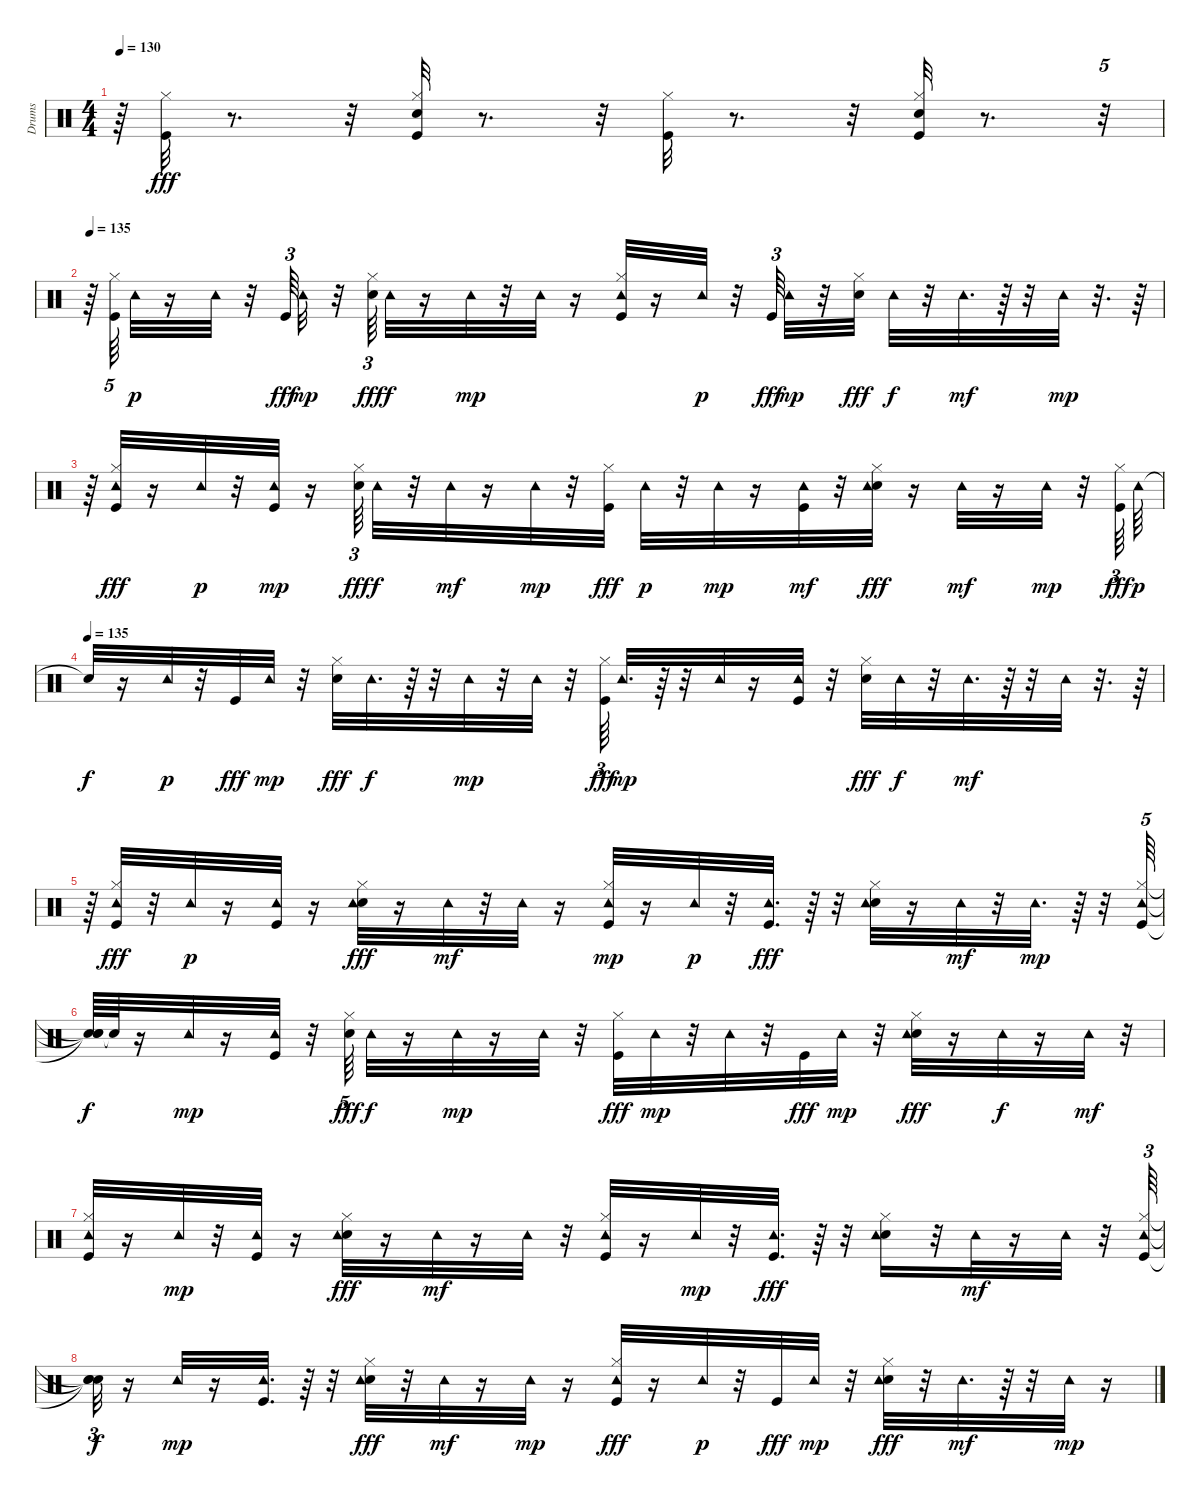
\track ("Drums" "Drums") {instrument percussion}
\staff {score}
\articulation defaults
\ts (4 4)
\tempo 130
\clef neutral
\ks c
r.64{dy fff} ("Kick (hit)" "Hi-Hat (closed)").32 r.8{d} r.32 ("Kick (hit)" "Electric Snare (hit)" "Hi-Hat (closed)").32 r.8{d} r.32 ("Kick (hit)" "Hi-Hat (closed)").32 r.8{d} r.32 ("Kick (hit)" "Electric Snare (hit)" "Hi-Hat (closed)").32 r.8{d} r.32{tu (5 4)} |
\tempo 135
r.64 ("Kick (hit)" "Hi-Hat (closed)").64{tu (5 4)} "Tambourine (hit)".32{dy p} r.16 "Tambourine (hit)".32 r.32 "Kick (hit)".64{tu (3 2) dy fff} "Tambourine (hit)".32{dy mp} r.32 ("Electric Snare (hit)" "Hi-Hat (closed)").64{tu (3 2) dy fff} "Tambourine (hit)".32{dy f} r.16 "Tambourine (hit)".32{dy mp} r.32 "Tambourine (hit)".32 r.16 ("Kick (hit)" "Hi-Hat (closed)" "Tambourine (hit)").32 r.16 "Tambourine (hit)".32{dy p} r.32 "Kick (hit)".64{tu (3 2) dy fff} "Tambourine (hit)".32{dy mp} r.32 ("Electric Snare (hit)" "Hi-Hat (closed)").32{dy fff} "Tambourine (hit)".32{dy f} r.32 "Tambourine (hit)".32{d dy mf} r.64 r.32 "Tambourine (hit)".32{dy mp} r.32{d} r.64 |
r.64 ("Tambourine (hit)" "Kick (hit)" "Hi-Hat (closed)").32{dy fff} r.16 "Tambourine (hit)".32{dy p} r.32 ("Kick (hit)" "Tambourine (hit)").32{dy mp} r.16 ("Electric Snare (hit)" "Hi-Hat (closed)").64{tu (3 2) dy fff} "Tambourine (hit)".32{dy f} r.32 "Tambourine (hit)".32{dy mf} r.16 "Tambourine (hit)".32{dy mp} r.32 ("Kick (hit)" "Hi-Hat (closed)").32{dy fff} "Tambourine (hit)".32{dy p} r.32 "Tambourine (hit)".32{dy mp} r.16 ("Kick (hit)" "Tambourine (hit)").32{dy mf} r.32 ("Electric Snare (hit)" "Hi-Hat (closed)" "Tambourine (hit)").32{dy fff} r.16 "Tambourine (hit)".32{dy mf} r.16 "Tambourine (hit)".32{dy mp} r.32 ("Kick (hit)" "Hi-Hat (closed)").64{tu (3 2) dy fff} "Tambourine (hit)".64{dy p} |
\tempo (135)
"Snare (hit)"{t}.32{dy f} r.16 "Tambourine (hit)".32{dy p} r.32 "Kick (hit)".32{dy fff} "Tambourine (hit)".32{dy mp} r.32 ("Electric Snare (hit)" "Hi-Hat (closed)").32{dy fff} "Tambourine (hit)".32{d dy f} r.64 r.32 "Tambourine (hit)".32{dy mp} r.32 "Tambourine (hit)".32 r.32 ("Kick (hit)" "Hi-Hat (closed)").64{tu (3 2) dy fff} "Tambourine (hit)".32{d dy mp} r.64 r.32 "Tambourine (hit)".32 r.16 ("Kick (hit)" "Tambourine (hit)").32 r.32 ("Electric Snare (hit)" "Hi-Hat (closed)").32{dy fff} "Tambourine (hit)".32{dy f} r.32 "Tambourine (hit)".32{d dy mf} r.64 r.32 "Tambourine (hit)".32 r.32{d} r.64 |
r.64 ("Tambourine (hit)" "Kick (hit)" "Hi-Hat (closed)").32{dy fff} r.32 "Tambourine (hit)".32{dy p} r.16 ("Kick (hit)" "Tambourine (hit)").32 r.16 ("Electric Snare (hit)" "Hi-Hat (closed)" "Tambourine (hit)").32{dy fff} r.16 "Tambourine (hit)".32{dy mf} r.32 "Tambourine (hit)".32 r.16 ("Kick (hit)" "Hi-Hat (closed)" "Tambourine (hit)").32{dy mp} r.16 "Tambourine (hit)".32{dy p} r.32 ("Tambourine (hit)" "Kick (hit)").32{d dy fff} r.64 r.32 ("Electric Snare (hit)" "Hi-Hat (closed)" "Tambourine (hit)").32 r.16 "Tambourine (hit)".32{dy mf} r.32 "Tambourine (hit)".32{d dy mp} r.64 r.32 ("Kick (hit)" "Hi-Hat (closed)" "Tambourine (hit)").64{tu (5 4)} |
("Snare (hit)"{t} "Snare (hit)"{t} "Snare (hit)"{t}).64{dy f} "Snare (hit)"{t}.64 r.16 "Tambourine (hit)".32{dy mp} r.16 ("Kick (hit)" "Tambourine (hit)").32 r.32 ("Electric Snare (hit)" "Hi-Hat (closed)").64{tu (5 4) dy fff} "Tambourine (hit)".32{dy f} r.16 "Tambourine (hit)".32{dy mp} r.16 "Tambourine (hit)".32 r.32 ("Kick (hit)" "Hi-Hat (closed)").32{dy fff} "Tambourine (hit)".32{dy mp} r.32 "Tambourine (hit)".32 r.32 "Kick (hit)".32{dy fff} "Tambourine (hit)".32{dy mp} r.32 ("Electric Snare (hit)" "Hi-Hat (closed)" "Tambourine (hit)").32{dy fff} r.16 "Tambourine (hit)".32{dy f} r.16 "Tambourine (hit)".32{dy mf} r.32 |
("Kick (hit)" "Hi-Hat (closed)" "Tambourine (hit)").32 r.16 "Tambourine (hit)".32{dy mp} r.32 ("Kick (hit)" "Tambourine (hit)").32 r.16 ("Electric Snare (hit)" "Hi-Hat (closed)" "Tambourine (hit)").32{dy fff} r.16 "Tambourine (hit)".32{dy mf} r.16 "Tambourine (hit)".32 r.32 ("Kick (hit)" "Hi-Hat (closed)" "Tambourine (hit)").32 r.16 "Tambourine (hit)".32{dy mp} r.32 ("Tambourine (hit)" "Kick (hit)").32{d dy fff} r.64 r.32 ("Electric Snare (hit)" "Hi-Hat (closed)" "Tambourine (hit)").16 r.32 "Tambourine (hit)".32{dy mf} r.16 "Tambourine (hit)".32 r.32 ("Kick (hit)" "Hi-Hat (closed)" "Tambourine (hit)").64{tu (3 2)} |
("Snare (hit)"{t} "Snare (hit)"{t} "Snare (hit)"{t}).32{tu (3 2) dy f} r.16 "Tambourine (hit)".32{dy mp} r.16 ("Kick (hit)" "Tambourine (hit)").32{d} r.64 r.32 ("Electric Snare (hit)" "Hi-Hat (closed)" "Tambourine (hit)").32{dy fff} r.32 "Tambourine (hit)".32{dy mf} r.16 "Tambourine (hit)".32{dy mp} r.16 ("Kick (hit)" "Hi-Hat (closed)" "Tambourine (hit)").32{dy fff} r.16 "Tambourine (hit)".32{dy p} r.32 "Kick (hit)".32{dy fff} "Tambourine (hit)".32{dy mp} r.32 ("Electric Snare (hit)" "Hi-Hat (closed)" "Tambourine (hit)").32{dy fff} r.32 "Tambourine (hit)".32{d dy mf} r.64 r.32 "Tambourine (hit)".32{dy mp} r.16
